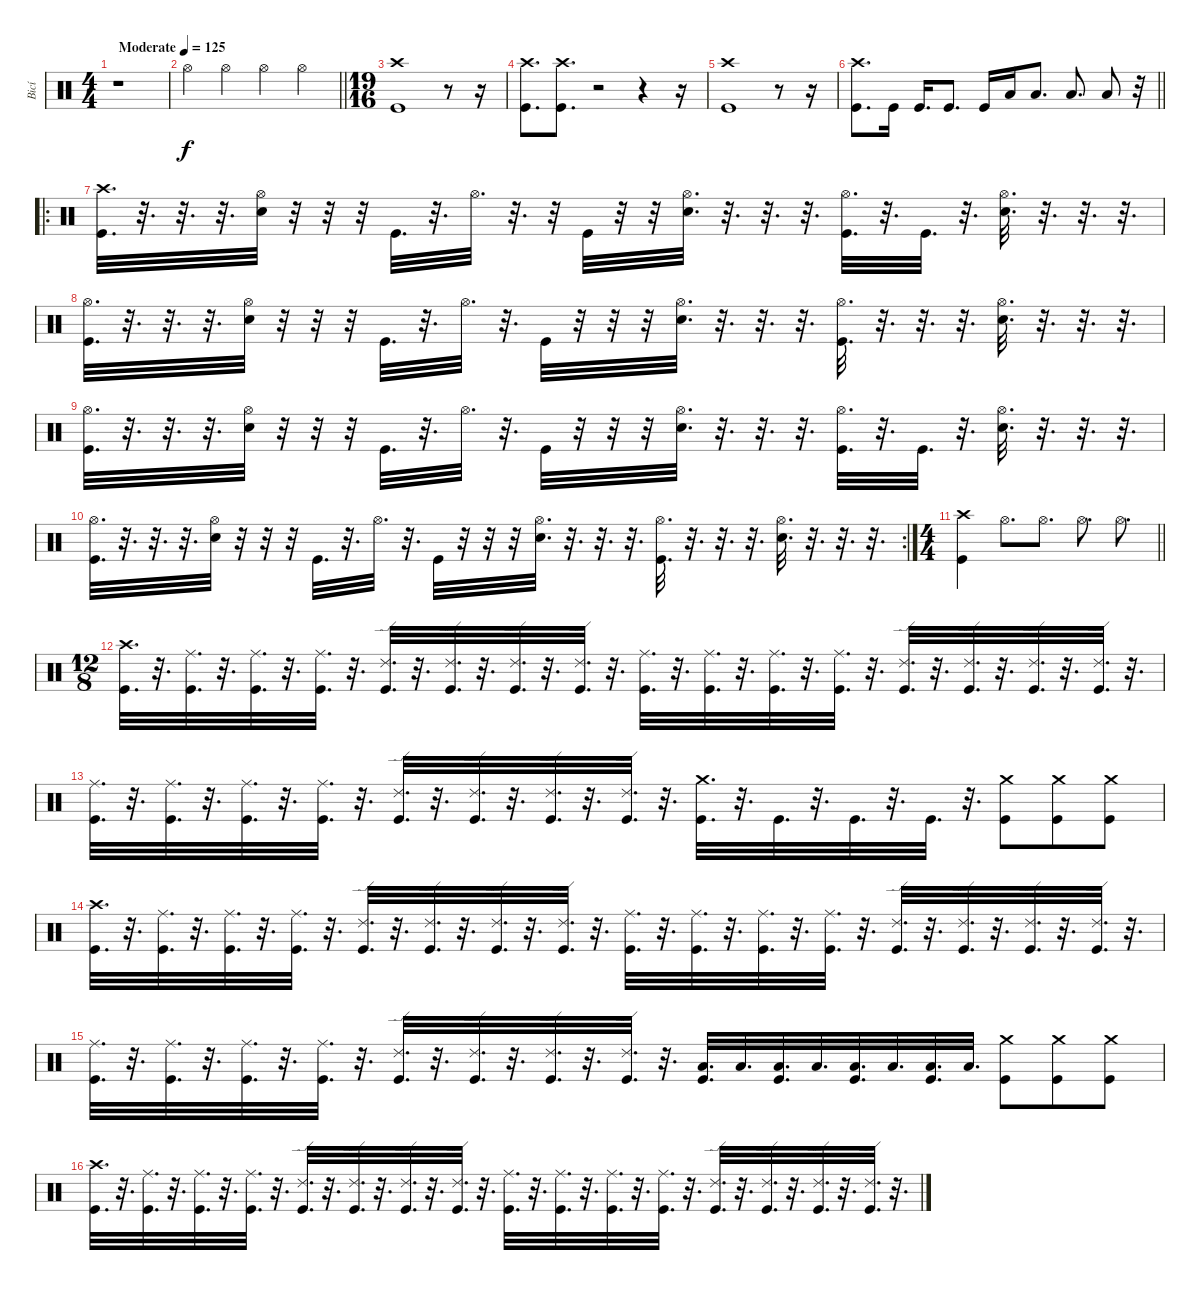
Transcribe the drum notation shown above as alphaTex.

\track ("Bicí" "Bicí") {instrument percussion}
\staff {score}
\articulation defaults
\ts (4 4)
\tempo (125 "Moderate")
\clef neutral
\ks c
r.1{dy f} |
\barLineRight lightlight "Hi-Hat (open)".4 "Hi-Hat (open)".4 "Hi-Hat (open)".4 "Hi-Hat (open)".4
|
\ts (19 16)
("Crash high (hit)" "Kick (hit)").1 r.8 r.16 |
("Crash high (hit)" "Kick (hit)").8{d} ("Crash high (hit)" "Kick (hit)").8{d} r.2 r.4 r.16 |
("Crash high (hit)" "Kick (hit)").1 r.8 r.16 |
\barLineRight lightlight
("Crash high (hit)" "Kick (hit)").8{d} "Kick (hit)".16 "Kick (hit)".16{d} "Kick (hit)".8{d} "Kick (hit)".16 "Low Floor Tom (hit)".16 "Low Floor Tom (hit)".8{d} "Low Floor Tom (hit)".8{d} "Low Floor Tom (hit)".8 r.32 |
\ro
("Crash high (hit)" "Kick (hit)").32{d} r.32{d} r.32{d} r.32{d} ("Hi-Hat (open)" "Electric Snare (hit)").32 r.32 r.32 r.32 "Kick (hit)".32{d} r.32{d} "Hi-Hat (open)".32{d} r.32{d} r.32 "Kick (hit)".32 r.32 r.32 ("Hi-Hat (open)" "Electric Snare (hit)").32{d} r.32{d} r.32{d} r.32{d} ("Hi-Hat (open)" "Kick (hit)").32{d} r.32{d} "Kick (hit)".32{d} r.32{d} ("Hi-Hat (open)" "Electric Snare (hit)").32{d} r.32{d} r.32{d} r.32{d} |
("Hi-Hat (open)" "Kick (hit)").32{d} r.32{d} r.32{d} r.32{d} ("Hi-Hat (open)" "Electric Snare (hit)").32 r.32 r.32 r.32 "Kick (hit)".32{d} r.32{d} "Hi-Hat (open)".32{d} r.32{d} "Kick (hit)".32 r.32 r.32 r.32 ("Hi-Hat (open)" "Electric Snare (hit)").32{d} r.32{d} r.32{d} r.32{d} ("Hi-Hat (open)" "Kick (hit)").32{d} r.32{d} r.32{d} r.32{d} ("Hi-Hat (open)" "Electric Snare (hit)").32{d} r.32{d} r.32{d} r.32{d} |
("Hi-Hat (open)" "Kick (hit)").32{d} r.32{d} r.32{d} r.32{d} ("Hi-Hat (open)" "Electric Snare (hit)").32 r.32 r.32 r.32 "Kick (hit)".32{d} r.32{d} "Hi-Hat (open)".32{d} r.32{d} "Kick (hit)".32 r.32 r.32 r.32 ("Hi-Hat (open)" "Electric Snare (hit)").32{d} r.32{d} r.32{d} r.32{d} ("Hi-Hat (open)" "Kick (hit)").32{d} r.32{d} "Kick (hit)".32{d} r.32{d} ("Hi-Hat (open)" "Electric Snare (hit)").32{d} r.32{d} r.32{d} r.32{d} |
\rc 2
("Hi-Hat (open)" "Kick (hit)").32{d} r.32{d} r.32{d} r.32{d} ("Hi-Hat (open)" "Electric Snare (hit)").32 r.32 r.32 r.32 "Kick (hit)".32{d} r.32{d} "Hi-Hat (open)".32{d} r.32{d} "Kick (hit)".32 r.32 r.32 r.32 ("Hi-Hat (open)" "Electric Snare (hit)").32{d} r.32{d} r.32{d} r.32{d} ("Hi-Hat (open)" "Kick (hit)").32{d} r.32{d} r.32{d} r.32{d} ("Hi-Hat (open)" "Electric Snare (hit)").32{d} r.32{d} r.32{d} r.32{d} |
\ts (4 4)
\barLineRight lightlight
("Crash high (hit)" "Kick (hit)").4 "Hi-Hat (open)".8{d} "Hi-Hat (open)".8{d} "Hi-Hat (open)".8{d} "Hi-Hat (open)".8{d} |
\ts (12 8)
("Crash high (hit)" "Kick (hit)").32{d} r.32{d} ("Ride (middle)" "Kick (hit)").32{d} r.32{d} ("Ride (middle)" "Kick (hit)").32{d} r.32{d} ("Ride (middle)" "Kick (hit)").32{d} r.32{d} ("Ride (edge) 2" "Kick (hit)").32{d} r.32{d} ("Ride (edge) 2" "Kick (hit)").32{d} r.32{d} ("Ride (edge) 2" "Kick (hit)").32{d} r.32{d} ("Ride (edge) 2" "Kick (hit)").32{d} r.32{d} ("Ride (middle)" "Kick (hit)").32{d} r.32{d} ("Ride (middle)" "Kick (hit)").32{d} r.32{d} ("Ride (middle)" "Kick (hit)").32{d} r.32{d} ("Ride (middle)" "Kick (hit)").32{d} r.32{d} ("Ride (edge) 2" "Kick (hit)").32{d} r.32{d} ("Ride (edge) 2" "Kick (hit)").32{d} r.32{d} ("Ride (edge) 2" "Kick (hit)").32{d} r.32{d} ("Ride (edge) 2" "Kick (hit)").32{d} r.32{d} |
("Ride (middle)" "Kick (hit)").32{d} r.32{d} ("Ride (middle)" "Kick (hit)").32{d} r.32{d} ("Ride (middle)" "Kick (hit)").32{d} r.32{d} ("Ride (middle)" "Kick (hit)").32{d} r.32{d} ("Ride (edge) 2" "Kick (hit)").32{d} r.32{d} ("Ride (edge) 2" "Kick (hit)").32{d} r.32{d} ("Ride (edge) 2" "Kick (hit)").32{d} r.32{d} ("Ride (edge) 2" "Kick (hit)").32{d} r.32{d} ("Crash medium (hit)" "Kick (hit)").32{d} r.32{d} "Kick (hit)".32{d} r.32{d} "Kick (hit)".32{d} r.32{d} "Kick (hit)".32{d} r.32{d} ("Crash medium (hit)" "Kick (hit)").8 ("Crash medium (hit)" "Kick (hit)").8 ("Crash medium (hit)" "Kick (hit)").8 |
("Crash high (hit)" "Kick (hit)").32{d} r.32{d} ("Ride (middle)" "Kick (hit)").32{d} r.32{d} ("Ride (middle)" "Kick (hit)").32{d} r.32{d} ("Ride (middle)" "Kick (hit)").32{d} r.32{d} ("Ride (edge) 2" "Kick (hit)").32{d} r.32{d} ("Ride (edge) 2" "Kick (hit)").32{d} r.32{d} ("Ride (edge) 2" "Kick (hit)").32{d} r.32{d} ("Ride (edge) 2" "Kick (hit)").32{d} r.32{d} ("Ride (middle)" "Kick (hit)").32{d} r.32{d} ("Ride (middle)" "Kick (hit)").32{d} r.32{d} ("Ride (middle)" "Kick (hit)").32{d} r.32{d} ("Ride (middle)" "Kick (hit)").32{d} r.32{d} ("Ride (edge) 2" "Kick (hit)").32{d} r.32{d} ("Ride (edge) 2" "Kick (hit)").32{d} r.32{d} ("Ride (edge) 2" "Kick (hit)").32{d} r.32{d} ("Ride (edge) 2" "Kick (hit)").32{d} r.32{d} |
("Ride (middle)" "Kick (hit)").32{d} r.32{d} ("Ride (middle)" "Kick (hit)").32{d} r.32{d} ("Ride (middle)" "Kick (hit)").32{d} r.32{d} ("Ride (middle)" "Kick (hit)").32{d} r.32{d} ("Ride (edge) 2" "Kick (hit)").32{d} r.32{d} ("Ride (edge) 2" "Kick (hit)").32{d} r.32{d} ("Ride (edge) 2" "Kick (hit)").32{d} r.32{d} ("Ride (edge) 2" "Kick (hit)").32{d} r.32{d} ("Low Tom (hit)" "Kick (hit)").32{d} "Low Tom (hit)".32{d} ("Low Tom (hit)" "Kick (hit)").32{d} "Low Tom (hit)".32{d} ("Low Tom (hit)" "Kick (hit)").32{d} "Low Floor Tom (hit)".32{d} ("Low Floor Tom (hit)" "Kick (hit)").32{d} "Low Floor Tom (hit)".32{d} ("Crash medium (hit)" "Kick (hit)").8 ("Crash medium (hit)" "Kick (hit)").8 ("Crash medium (hit)" "Kick (hit)").8 |
("Crash high (hit)" "Kick (hit)").32{d} r.32{d} ("Ride (middle)" "Kick (hit)").32{d} r.32{d} ("Ride (middle)" "Kick (hit)").32{d} r.32{d} ("Ride (middle)" "Kick (hit)").32{d} r.32{d} ("Ride (edge) 2" "Kick (hit)").32{d} r.32{d} ("Ride (edge) 2" "Kick (hit)").32{d} r.32{d} ("Ride (edge) 2" "Kick (hit)").32{d} r.32{d} ("Ride (edge) 2" "Kick (hit)").32{d} r.32{d} ("Ride (middle)" "Kick (hit)").32{d} r.32{d} ("Ride (middle)" "Kick (hit)").32{d} r.32{d} ("Ride (middle)" "Kick (hit)").32{d} r.32{d} ("Ride (middle)" "Kick (hit)").32{d} r.32{d} ("Ride (edge) 2" "Kick (hit)").32{d} r.32{d} ("Ride (edge) 2" "Kick (hit)").32{d} r.32{d} ("Ride (edge) 2" "Kick (hit)").32{d} r.32{d} ("Ride (edge) 2" "Kick (hit)").32{d} r.32{d}
